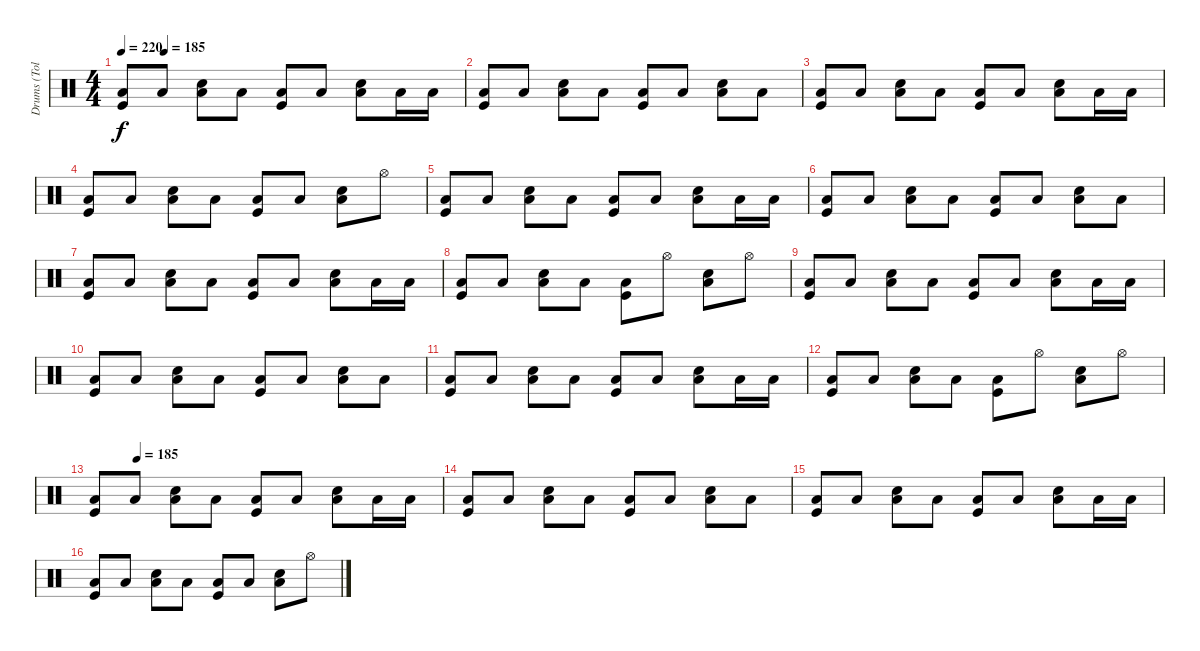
\track ("Drums (Tolik)" "Drums (Tol") {instrument percussion}
\staff {score}
\articulation defaults
\ts (4 4)
\tempo 220
\tempo (185 0.125)
\clef neutral
\ks c
("Low Floor Tom (hit)" "Kick (hit)").8{dy f} "Low Floor Tom (hit)".8 ("Low Floor Tom (hit)" "Electric Snare (hit)").8 "Low Floor Tom (hit)".8 ("Low Floor Tom (hit)" "Kick (hit)").8 "Low Floor Tom (hit)".8 ("Low Floor Tom (hit)" "Electric Snare (hit)").8 "Low Floor Tom (hit)".16 "Low Floor Tom (hit)".16 |
("Low Floor Tom (hit)" "Kick (hit)").8 "Low Floor Tom (hit)".8 ("Low Floor Tom (hit)" "Electric Snare (hit)").8 "Low Floor Tom (hit)".8 ("Low Floor Tom (hit)" "Kick (hit)").8 "Low Floor Tom (hit)".8 ("Low Floor Tom (hit)" "Electric Snare (hit)").8 "Low Floor Tom (hit)".8 |
("Low Floor Tom (hit)" "Kick (hit)").8 "Low Floor Tom (hit)".8 ("Low Floor Tom (hit)" "Electric Snare (hit)").8 "Low Floor Tom (hit)".8 ("Low Floor Tom (hit)" "Kick (hit)").8 "Low Floor Tom (hit)".8 ("Low Floor Tom (hit)" "Electric Snare (hit)").8 "Low Floor Tom (hit)".16 "Low Floor Tom (hit)".16 |
("Low Floor Tom (hit)" "Kick (hit)").8 "Low Floor Tom (hit)".8 ("Low Floor Tom (hit)" "Electric Snare (hit)").8 "Low Floor Tom (hit)".8 ("Low Floor Tom (hit)" "Kick (hit)").8 "Low Floor Tom (hit)".8 ("Low Floor Tom (hit)" "Electric Snare (hit)").8 "Hi-Hat (open)".8 |
("Low Floor Tom (hit)" "Kick (hit)").8 "Low Floor Tom (hit)".8 ("Low Floor Tom (hit)" "Electric Snare (hit)").8 "Low Floor Tom (hit)".8 ("Low Floor Tom (hit)" "Kick (hit)").8 "Low Floor Tom (hit)".8 ("Low Floor Tom (hit)" "Electric Snare (hit)").8 "Low Floor Tom (hit)".16 "Low Floor Tom (hit)".16 |
("Low Floor Tom (hit)" "Kick (hit)").8 "Low Floor Tom (hit)".8 ("Low Floor Tom (hit)" "Electric Snare (hit)").8 "Low Floor Tom (hit)".8 ("Low Floor Tom (hit)" "Kick (hit)").8 "Low Floor Tom (hit)".8 ("Low Floor Tom (hit)" "Electric Snare (hit)").8 "Low Floor Tom (hit)".8 |
("Low Floor Tom (hit)" "Kick (hit)").8 "Low Floor Tom (hit)".8 ("Low Floor Tom (hit)" "Electric Snare (hit)").8 "Low Floor Tom (hit)".8 ("Low Floor Tom (hit)" "Kick (hit)").8 "Low Floor Tom (hit)".8 ("Low Floor Tom (hit)" "Electric Snare (hit)").8 "Low Floor Tom (hit)".16 "Low Floor Tom (hit)".16 |
("Low Floor Tom (hit)" "Kick (hit)").8 "Low Floor Tom (hit)".8 ("Low Floor Tom (hit)" "Electric Snare (hit)").8 "Low Floor Tom (hit)".8 ("Low Floor Tom (hit)" "Kick (hit)").8 "Hi-Hat (open)".8 ("Low Floor Tom (hit)" "Electric Snare (hit)").8 "Hi-Hat (open)".8 |
("Low Floor Tom (hit)" "Kick (hit)").8 "Low Floor Tom (hit)".8 ("Low Floor Tom (hit)" "Electric Snare (hit)").8 "Low Floor Tom (hit)".8 ("Low Floor Tom (hit)" "Kick (hit)").8 "Low Floor Tom (hit)".8 ("Low Floor Tom (hit)" "Electric Snare (hit)").8 "Low Floor Tom (hit)".16 "Low Floor Tom (hit)".16 |
("Low Floor Tom (hit)" "Kick (hit)").8 "Low Floor Tom (hit)".8 ("Low Floor Tom (hit)" "Electric Snare (hit)").8 "Low Floor Tom (hit)".8 ("Low Floor Tom (hit)" "Kick (hit)").8 "Low Floor Tom (hit)".8 ("Low Floor Tom (hit)" "Electric Snare (hit)").8 "Low Floor Tom (hit)".8 |
("Low Floor Tom (hit)" "Kick (hit)").8 "Low Floor Tom (hit)".8 ("Low Floor Tom (hit)" "Electric Snare (hit)").8 "Low Floor Tom (hit)".8 ("Low Floor Tom (hit)" "Kick (hit)").8 "Low Floor Tom (hit)".8 ("Low Floor Tom (hit)" "Electric Snare (hit)").8 "Low Floor Tom (hit)".16 "Low Floor Tom (hit)".16 |
("Low Floor Tom (hit)" "Kick (hit)").8 "Low Floor Tom (hit)".8 ("Low Floor Tom (hit)" "Electric Snare (hit)").8 "Low Floor Tom (hit)".8 ("Low Floor Tom (hit)" "Kick (hit)").8 "Hi-Hat (open)".8 ("Low Floor Tom (hit)" "Electric Snare (hit)").8 "Hi-Hat (open)".8 |
\tempo (185 0.125)
("Low Floor Tom (hit)" "Kick (hit)").8 "Low Floor Tom (hit)".8 ("Low Floor Tom (hit)" "Electric Snare (hit)").8 "Low Floor Tom (hit)".8 ("Low Floor Tom (hit)" "Kick (hit)").8 "Low Floor Tom (hit)".8 ("Low Floor Tom (hit)" "Electric Snare (hit)").8 "Low Floor Tom (hit)".16 "Low Floor Tom (hit)".16 |
("Low Floor Tom (hit)" "Kick (hit)").8 "Low Floor Tom (hit)".8 ("Low Floor Tom (hit)" "Electric Snare (hit)").8 "Low Floor Tom (hit)".8 ("Low Floor Tom (hit)" "Kick (hit)").8 "Low Floor Tom (hit)".8 ("Low Floor Tom (hit)" "Electric Snare (hit)").8 "Low Floor Tom (hit)".8 |
("Low Floor Tom (hit)" "Kick (hit)").8 "Low Floor Tom (hit)".8 ("Low Floor Tom (hit)" "Electric Snare (hit)").8 "Low Floor Tom (hit)".8 ("Low Floor Tom (hit)" "Kick (hit)").8 "Low Floor Tom (hit)".8 ("Low Floor Tom (hit)" "Electric Snare (hit)").8 "Low Floor Tom (hit)".16 "Low Floor Tom (hit)".16 |
("Low Floor Tom (hit)" "Kick (hit)").8 "Low Floor Tom (hit)".8 ("Low Floor Tom (hit)" "Electric Snare (hit)").8 "Low Floor Tom (hit)".8 ("Low Floor Tom (hit)" "Kick (hit)").8 "Low Floor Tom (hit)".8 ("Low Floor Tom (hit)" "Electric Snare (hit)").8 "Hi-Hat (open)".8
